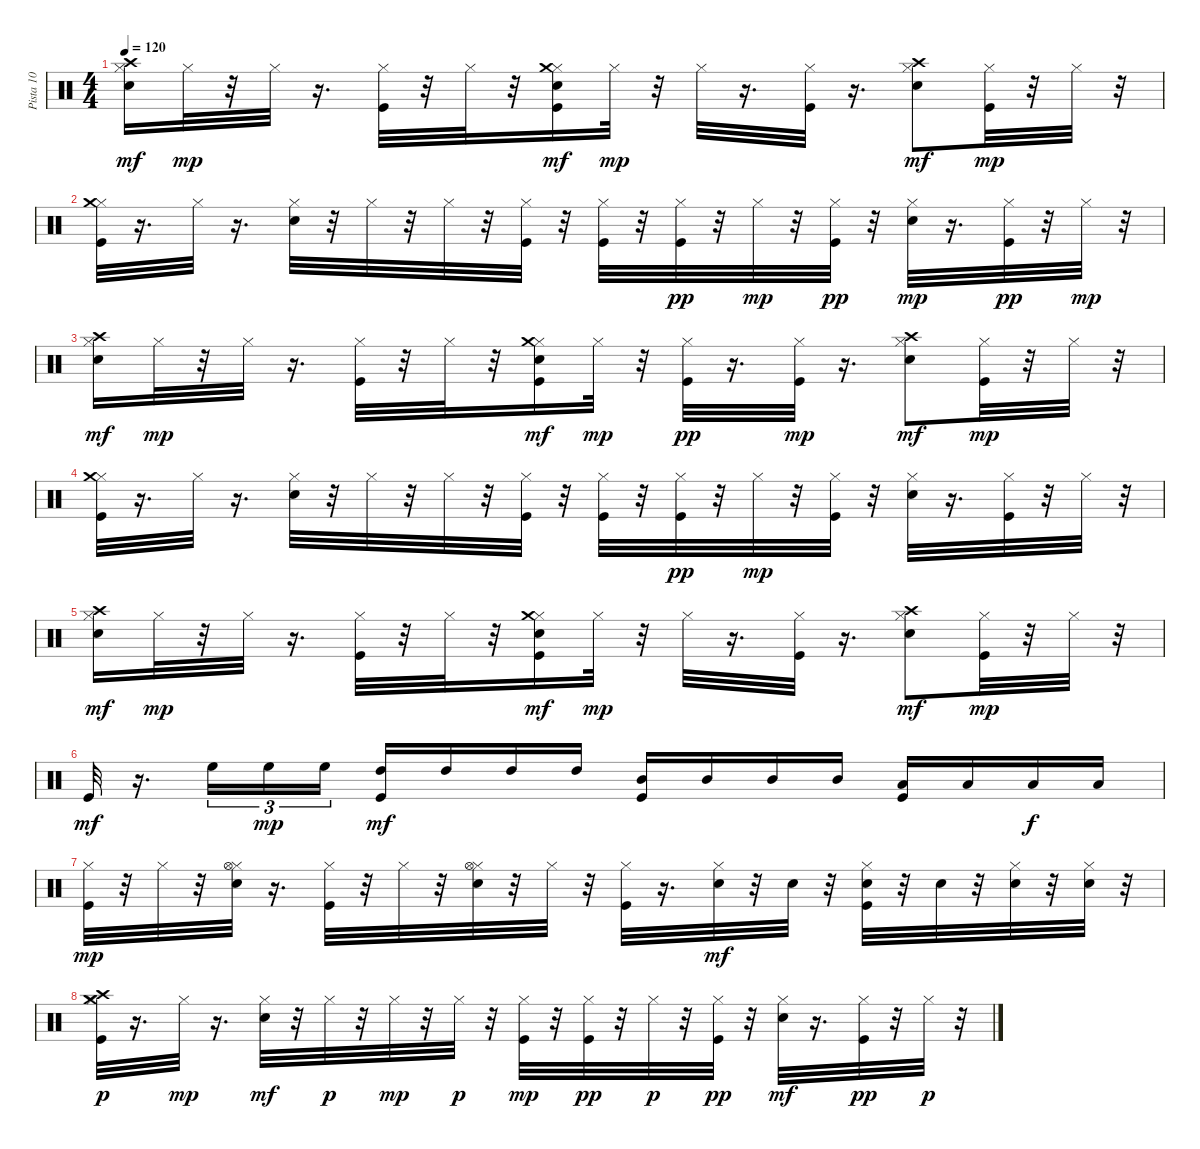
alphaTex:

\track ("Pista 10" "Pista 10") {instrument percussion}
\staff {score}
\articulation defaults
\ts (4 4)
\tempo 120
\clef neutral
\ks c
("Hi-Hat (closed)" "Crash high (hit)" "Snare (hit) 2").16{dy mf} "Hi-Hat (closed)".32{dy mp} r.32 "Hi-Hat (closed)".32 r.16{d} ("Kick (hit)" "Hi-Hat (closed)").32 r.32 "Hi-Hat (closed)".32 r.32 ("Kick (hit)" "Hi-Hat (closed)" "Crash medium (hit)" "Snare (hit) 2").16{dy mf} "Hi-Hat (closed)".32{dy mp} r.32 "Hi-Hat (closed)".32 r.16{d} ("Kick (hit)" "Hi-Hat (closed)").32 r.16{d} ("Hi-Hat (closed)" "Crash high (hit)" "Snare (hit) 2").8{dy mf} ("Kick (hit)" "Hi-Hat (closed)").32{dy mp} r.32 "Hi-Hat (closed)".32 r.32 |
("Kick (hit)" "Hi-Hat (closed)" "Crash medium (hit)").32 r.16{d} "Hi-Hat (closed)".32 r.16{d} ("Hi-Hat (closed)" "Snare (hit) 2").32 r.32 "Hi-Hat (closed)".32 r.32 "Hi-Hat (closed)".32 r.32 ("Kick (hit)" "Hi-Hat (closed)").32 r.32 ("Kick (hit)" "Hi-Hat (closed)").32 r.32 ("Kick (hit)" "Hi-Hat (closed)").32{dy pp} r.32 "Hi-Hat (closed)".32{dy mp} r.32 ("Kick (hit)" "Hi-Hat (closed)").32{dy pp} r.32 ("Hi-Hat (closed)" "Snare (hit) 2").32{dy mp} r.16{d} ("Hi-Hat (closed)" "Kick (hit)").32{dy pp} r.32 "Hi-Hat (closed)".32{dy mp} r.32 |
("Hi-Hat (closed)" "Crash high (hit)" "Snare (hit) 2").16{dy mf} "Hi-Hat (closed)".32{dy mp} r.32 "Hi-Hat (closed)".32 r.16{d} ("Kick (hit)" "Hi-Hat (closed)").32 r.32 "Hi-Hat (closed)".32 r.32 ("Kick (hit)" "Hi-Hat (closed)" "Crash medium (hit)" "Snare (hit) 2").16{dy mf} "Hi-Hat (closed)".32{dy mp} r.32 ("Hi-Hat (closed)" "Kick (hit)").32{dy pp} r.16{d} ("Kick (hit)" "Hi-Hat (closed)").32{dy mp} r.16{d} ("Hi-Hat (closed)" "Crash high (hit)" "Snare (hit) 2").8{dy mf} ("Kick (hit)" "Hi-Hat (closed)").32{dy mp} r.32 "Hi-Hat (closed)".32 r.32 |
("Kick (hit)" "Hi-Hat (closed)" "Crash medium (hit)").32 r.16{d} "Hi-Hat (closed)".32 r.16{d} ("Hi-Hat (closed)" "Snare (hit) 2").32 r.32 "Hi-Hat (closed)".32 r.32 "Hi-Hat (closed)".32 r.32 ("Kick (hit)" "Hi-Hat (closed)").32 r.32 ("Kick (hit)" "Hi-Hat (closed)").32 r.32 ("Hi-Hat (closed)" "Kick (hit)").32{dy pp} r.32 "Hi-Hat (closed)".32{dy mp} r.32 ("Hi-Hat (closed)" "Kick (hit)").32 r.32 ("Hi-Hat (closed)" "Snare (hit) 2").32 r.16{d} ("Hi-Hat (closed)" "Kick (hit)").32 r.32 "Hi-Hat (closed)".32 r.32 |
("Hi-Hat (closed)" "Crash high (hit)" "Snare (hit) 2").16{dy mf} "Hi-Hat (closed)".32{dy mp} r.32 "Hi-Hat (closed)".32 r.16{d} ("Kick (hit)" "Hi-Hat (closed)").32 r.32 "Hi-Hat (closed)".32 r.32 ("Kick (hit)" "Hi-Hat (closed)" "Crash medium (hit)" "Snare (hit) 2").16{dy mf} "Hi-Hat (closed)".32{dy mp} r.32 "Hi-Hat (closed)".32 r.16{d} ("Kick (hit)" "Hi-Hat (closed)").32 r.16{d} ("Hi-Hat (closed)" "Crash high (hit)" "Snare (hit) 2").8{dy mf} ("Kick (hit)" "Hi-Hat (closed)").32{dy mp} r.32 "Hi-Hat (closed)".32 r.32 |
"Kick (hit)".32{dy mf} r.16{d} "High Floor Tom (hit)".16{tu (3 2)} "High Floor Tom (hit)".16{tu (3 2) dy mp} "High Floor Tom (hit)".16{tu (3 2)} ("Kick (hit)" "High Tom (hit)").16{dy mf} "High Tom (hit)".16 "High Tom (hit)".16 "High Tom (hit)".16 ("Kick (hit)" "Mid Tom (hit)").16 "Mid Tom (hit)".16 "Mid Tom (hit)".16 "Mid Tom (hit)".16 ("Kick (hit)" "Low Tom (hit)").16 "Low Tom (hit)".16 "Low Tom (hit)".16{dy f} "Low Tom (hit)".16 |
("Kick (hit)" "Hi-Hat (closed)").32{dy mp} r.32 "Hi-Hat (closed)".32 r.32 ("Hi-Hat (closed)" "Hi-Hat (open)" "Snare (hit) 2").32 r.16{d} ("Kick (hit)" "Hi-Hat (closed)").32 r.32 "Hi-Hat (closed)".32 r.32 ("Hi-Hat (closed)" "Hi-Hat (open)" "Snare (hit) 2").32 r.32 "Hi-Hat (closed)".32 r.32 ("Kick (hit)" "Hi-Hat (closed)").32 r.16{d} ("Hi-Hat (closed)" "Snare (hit) 2").32{dy mf} r.32 "Snare (hit) 2".32 r.32 ("Kick (hit)" "Hi-Hat (closed)" "Snare (hit) 2").32 r.32 "Snare (hit) 2".32 r.32 ("Hi-Hat (closed)" "Snare (hit) 2").32 r.32 ("Hi-Hat (closed)" "Snare (hit) 2").32 r.32 |
("Kick (hit)" "Hi-Hat (closed)" "Crash high (hit)" "Crash medium (hit)").32{dy p} r.16{d} "Hi-Hat (closed)".32{dy mp} r.16{d} ("Hi-Hat (closed)" "Snare (hit) 2").32{dy mf} r.32 "Hi-Hat (closed)".32{dy p} r.32 "Hi-Hat (closed)".32{dy mp} r.32 "Hi-Hat (closed)".32{dy p} r.32 ("Kick (hit)" "Hi-Hat (closed)").32{dy mp} r.32 ("Kick (hit)" "Hi-Hat (closed)").32{dy pp} r.32 "Hi-Hat (closed)".32{dy p} r.32 ("Kick (hit)" "Hi-Hat (closed)").32{dy pp} r.32 ("Hi-Hat (closed)" "Snare (hit) 2").32{dy mf} r.16{d} ("Hi-Hat (closed)" "Kick (hit)").32{dy pp} r.32 "Hi-Hat (closed)".32{dy p} r.32
